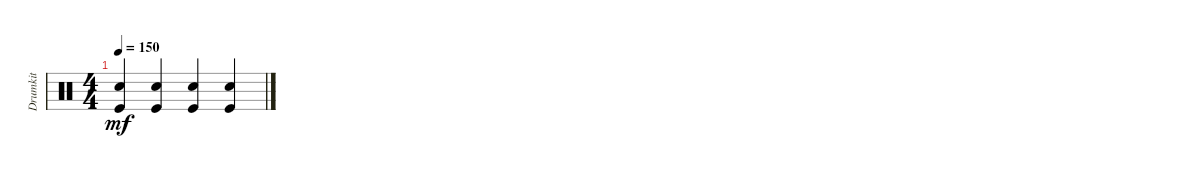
\track ("Drumkit" "Drumkit") {instrument percussion}
\staff {score}
\articulation defaults
\ts (4 4)
\tempo 150
\clef neutral
\ks c
("Kick (hit)" "Snare (hit) 2").4{dy mf} ("Kick (hit)" "Snare (hit) 2").4 ("Kick (hit)" "Snare (hit) 2").4 ("Kick (hit)" "Snare (hit) 2").4
